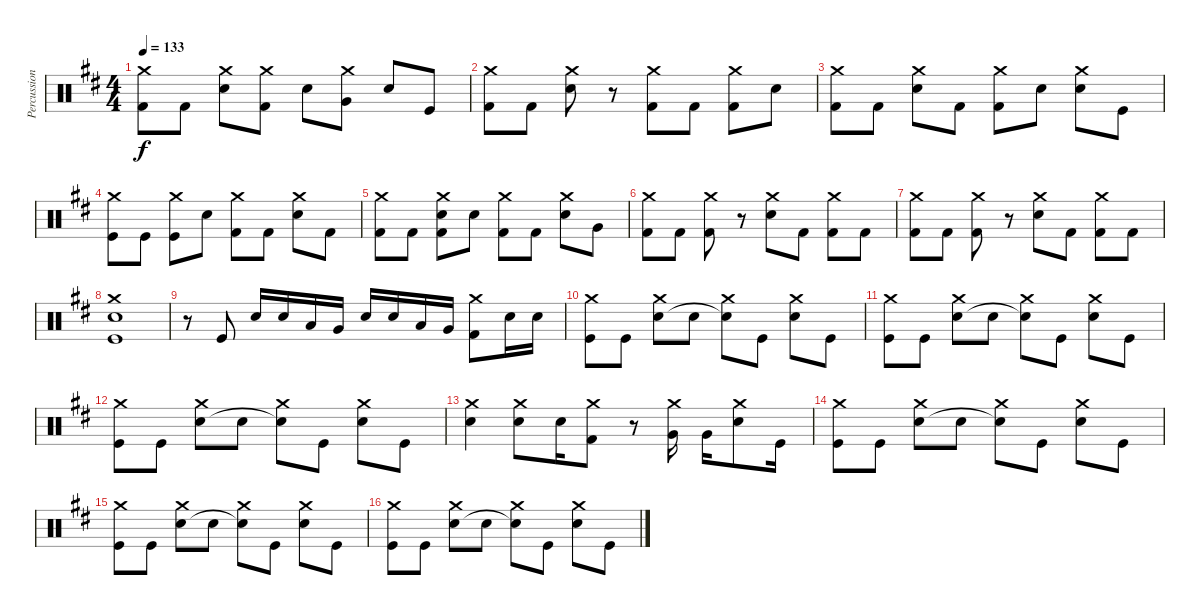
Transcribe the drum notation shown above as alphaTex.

\track ("Percussion" "Percussion") {instrument percussion}
\staff {score}
\articulation defaults
\ts (4 4)
\tempo 133
\clef neutral
\ks d
("Crash medium (hit)" "Kick (hit) 2").8{dy f} "Kick (hit) 2".8 ("Crash medium (hit)" "Snare (hit) 2").8 ("Crash medium (hit)" "Kick (hit) 2").8 "Electric Snare (hit)".8 ("Crash medium (hit)" "Very Low Tom (hit)").8 "Snare (hit) 2".8 "Kick (hit)".8 |
("Crash medium (hit)" "Kick (hit) 2").8 "Kick (hit) 2".8 ("Crash medium (hit)" "Snare (hit) 2").8 r.8 ("Crash medium (hit)" "Kick (hit) 2").8 "Kick (hit) 2".8 ("Crash medium (hit)" "Kick (hit) 2").8 "Snare (hit) 2".8 |
("Crash medium (hit)" "Kick (hit) 2").8 "Kick (hit) 2".8 ("Crash medium (hit)" "Snare (hit) 2").8 "Kick (hit) 2".8 ("Crash medium (hit)" "Kick (hit) 2").8 "Snare (hit) 2".8 ("Crash medium (hit)" "Electric Snare (hit)").8 "Kick (hit)".8 |
("Crash medium (hit)" "Kick (hit)").8 "Kick (hit)".8 ("Crash medium (hit)" "Kick (hit)").8 "Snare (hit) 2".8 ("Crash medium (hit)" "Kick (hit) 2").8 "Kick (hit) 2".8 ("Crash medium (hit)" "Snare (hit) 2").8 "Kick (hit) 2".8 |
("Crash medium (hit)" "Kick (hit) 2").8 "Kick (hit) 2".8 ("Crash medium (hit)" "Snare (hit) 2" "Kick (hit) 2").8 "Snare (hit) 2".8 ("Crash medium (hit)" "Kick (hit) 2").8 "Kick (hit) 2".8 ("Crash medium (hit)" "Snare (hit) 2").8 "Very Low Tom (hit)".8 |
("Crash medium (hit)" "Kick (hit) 2").8 "Kick (hit) 2".8 ("Crash medium (hit)" "Kick (hit) 2").8 r.8 ("Crash medium (hit)" "Snare (hit) 2").8 "Kick (hit) 2".8 ("Crash medium (hit)" "Kick (hit) 2").8 "Kick (hit) 2".8 |
("Crash medium (hit)" "Kick (hit) 2").8 "Kick (hit) 2".8 ("Crash medium (hit)" "Kick (hit) 2").8 r.8 ("Crash medium (hit)" "Snare (hit) 2").8 "Kick (hit) 2".8 ("Crash medium (hit)" "Kick (hit) 2").8 "Kick (hit) 2".8 |
("Crash medium (hit)" "Snare (hit) 2" "Kick (hit)").1 |
r.8 "Kick (hit)".8 "Snare (hit) 2".16 "Electric Snare (hit)".16 "Low Tom (hit)".16 "Very Low Tom (hit)".16 "Snare (hit) 2".16 "Electric Snare (hit)".16 "Low Tom (hit)".16 "Very Low Tom (hit)".16 ("Crash medium (hit)" "Kick (hit) 2").8 "Electric Snare (hit)".16 "Electric Snare (hit)".16 |
("Crash medium (hit)" "Kick (hit)").8 "Kick (hit)".8 ("Crash medium (hit)" "Electric Snare (hit)").8 "Snare (hit) 2".8 ("Crash medium (hit)" "Snare (hit)"{t}).8 "Kick (hit)".8 ("Crash medium (hit)" "Snare (hit) 2").8 "Kick (hit)".8 |
("Crash medium (hit)" "Kick (hit)").8 "Kick (hit)".8 ("Crash medium (hit)" "Electric Snare (hit)").8 "Snare (hit) 2".8 ("Crash medium (hit)" "Snare (hit)"{t}).8 "Kick (hit)".8 ("Crash medium (hit)" "Snare (hit) 2").8 "Kick (hit)".8 |
("Crash medium (hit)" "Kick (hit)").8 "Kick (hit)".8 ("Crash medium (hit)" "Electric Snare (hit)").8 "Snare (hit) 2".8 ("Crash medium (hit)" "Snare (hit)"{t}).8 "Kick (hit)".8 ("Crash medium (hit)" "Snare (hit) 2").8 "Kick (hit)".8 |
("Crash medium (hit)" "Snare (hit) 2").4 ("Crash medium (hit)" "Electric Snare (hit)").8 "Electric Snare (hit)".16 ("Crash medium (hit)" "Kick (hit) 2").8 r.8 ("Crash medium (hit)" "Very Low Tom (hit)").16 "Very Low Tom (hit)".16 ("Crash medium (hit)" "Snare (hit) 2").8 "Kick (hit)".16 |
("Crash medium (hit)" "Kick (hit)").8 "Kick (hit)".8 ("Crash medium (hit)" "Electric Snare (hit)").8 "Snare (hit) 2".8 ("Crash medium (hit)" "Snare (hit)"{t}).8 "Kick (hit)".8 ("Crash medium (hit)" "Snare (hit) 2").8 "Kick (hit)".8 |
("Crash medium (hit)" "Kick (hit)").8 "Kick (hit)".8 ("Crash medium (hit)" "Electric Snare (hit)").8 "Snare (hit) 2".8 ("Crash medium (hit)" "Snare (hit)"{t}).8 "Kick (hit)".8 ("Crash medium (hit)" "Snare (hit) 2").8 "Kick (hit)".8 |
("Crash medium (hit)" "Kick (hit)").8 "Kick (hit)".8 ("Crash medium (hit)" "Electric Snare (hit)").8 "Snare (hit) 2".8 ("Crash medium (hit)" "Snare (hit)"{t}).8 "Kick (hit)".8 ("Crash medium (hit)" "Snare (hit) 2").8 "Kick (hit)".8
